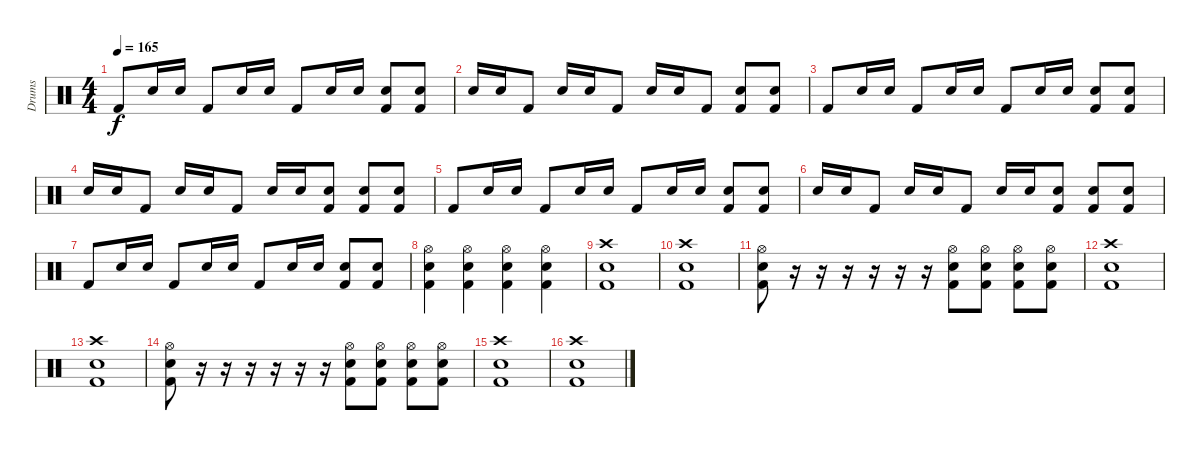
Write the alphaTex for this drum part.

\track ("Drums" "Drums") {instrument percussion}
\staff {score}
\articulation defaults
\ts (4 4)
\tempo 165
\clef neutral
\ks c "Kick (hit) 2".8{dy f} "Snare (hit) 2".16 "Snare (hit) 2".16 "Kick (hit) 2".8 "Snare (hit) 2".16 "Snare (hit) 2".16 "Kick (hit) 2".8 "Snare (hit) 2".16 "Snare (hit) 2".16
("Kick (hit) 2" "Snare (hit) 2").8 ("Kick (hit) 2" "Snare (hit) 2").8 |
"Snare (hit) 2".16 "Snare (hit) 2".16 "Kick (hit) 2".8 "Snare (hit) 2".16 "Snare (hit) 2".16 "Kick (hit) 2".8 "Snare (hit) 2".16 "Snare (hit) 2".16 "Kick (hit) 2".8 ("Kick (hit) 2" "Snare (hit) 2").8 ("Kick (hit) 2" "Snare (hit) 2").8 |
"Kick (hit) 2".8 "Snare (hit) 2".16 "Snare (hit) 2".16 "Kick (hit) 2".8 "Snare (hit) 2".16 "Snare (hit) 2".16 "Kick (hit) 2".8 "Snare (hit) 2".16 "Snare (hit) 2".16 ("Kick (hit) 2" "Snare (hit) 2").8 ("Kick (hit) 2" "Snare (hit) 2").8 |
"Snare (hit) 2".16 "Snare (hit) 2".16 "Kick (hit) 2".8 "Snare (hit) 2".16 "Snare (hit) 2".16 "Kick (hit) 2".8 "Snare (hit) 2".16 "Snare (hit) 2".16 ("Kick (hit) 2" "Snare (hit) 2").8 ("Kick (hit) 2" "Snare (hit) 2").8 ("Kick (hit) 2" "Snare (hit) 2").8 |
"Kick (hit) 2".8 "Snare (hit) 2".16 "Snare (hit) 2".16 "Kick (hit) 2".8 "Snare (hit) 2".16 "Snare (hit) 2".16 "Kick (hit) 2".8 "Snare (hit) 2".16 "Snare (hit) 2".16 ("Kick (hit) 2" "Snare (hit) 2").8 ("Kick (hit) 2" "Snare (hit) 2").8 |
"Snare (hit) 2".16 "Snare (hit) 2".16 "Kick (hit) 2".8 "Snare (hit) 2".16 "Snare (hit) 2".16 "Kick (hit) 2".8 "Snare (hit) 2".16 "Snare (hit) 2".16 ("Kick (hit) 2" "Snare (hit) 2").8 ("Kick (hit) 2" "Snare (hit) 2").8 ("Kick (hit) 2" "Snare (hit) 2").8 |
"Kick (hit) 2".8 "Snare (hit) 2".16 "Snare (hit) 2".16 "Kick (hit) 2".8 "Snare (hit) 2".16 "Snare (hit) 2".16 "Kick (hit) 2".8 "Snare (hit) 2".16 "Snare (hit) 2".16 ("Kick (hit) 2" "Snare (hit) 2").8 ("Kick (hit) 2" "Snare (hit) 2").8 |
("Kick (hit) 2" "Hi-Hat (open)" "Snare (hit) 2").4 ("Kick (hit) 2" "Hi-Hat (open)" "Snare (hit) 2").4 ("Kick (hit) 2" "Hi-Hat (open)" "Snare (hit) 2").4 ("Kick (hit) 2" "Hi-Hat (open)" "Snare (hit) 2").4 |
("Snare (hit) 2" "Kick (hit) 2" "Crash high (hit)").1 |
("Snare (hit) 2" "Kick (hit) 2" "Crash high (hit)").1 |
("Kick (hit) 2" "Hi-Hat (open)" "Snare (hit) 2").8 r.16 r.16 r.16 r.16 r.16 r.16 ("Kick (hit) 2" "Hi-Hat (open)" "Snare (hit) 2").8 ("Kick (hit) 2" "Hi-Hat (open)" "Snare (hit) 2").8 ("Kick (hit) 2" "Hi-Hat (open)" "Snare (hit) 2").8 ("Kick (hit) 2" "Hi-Hat (open)" "Snare (hit) 2").8 |
("Snare (hit) 2" "Kick (hit) 2" "Crash high (hit)").1 |
("Snare (hit) 2" "Kick (hit) 2" "Crash high (hit)").1 |
("Kick (hit) 2" "Hi-Hat (open)" "Snare (hit) 2").8 r.16 r.16 r.16 r.16 r.16 r.16 ("Kick (hit) 2" "Hi-Hat (open)" "Snare (hit) 2").8 ("Kick (hit) 2" "Hi-Hat (open)" "Snare (hit) 2").8 ("Kick (hit) 2" "Hi-Hat (open)" "Snare (hit) 2").8 ("Kick (hit) 2" "Hi-Hat (open)" "Snare (hit) 2").8 |
("Snare (hit) 2" "Kick (hit) 2" "Crash high (hit)").1 |
("Snare (hit) 2" "Kick (hit) 2" "Crash high (hit)").1
